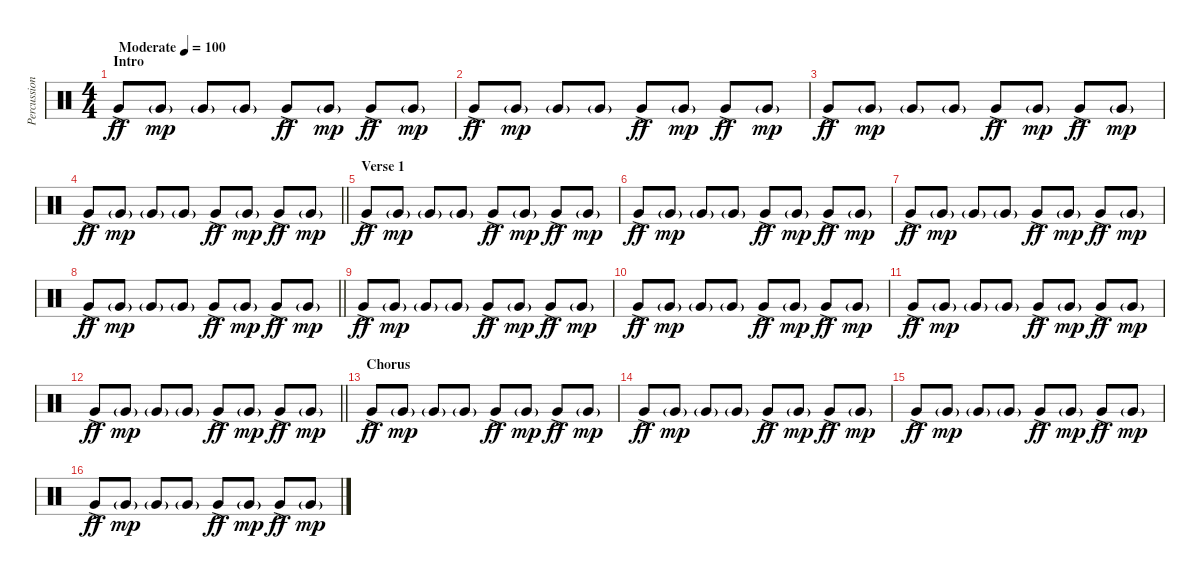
\track ("Percussion" "Percussion") {instrument percussion}
\staff {score}
\articulation defaults
\ts (4 4)
\section ("" "Intro")
\tempo (100 "Moderate")
\clef neutral
\ks c "Very Low Tom (hit)"{ac}.8{dy ff} "Very Low Tom (hit)"{g}.8{dy mp} "Very Low Tom (hit)"{g}.8 "Very Low Tom (hit)"{g}.8 "Very Low Tom (hit)"{ac}.8{dy ff} "Very Low Tom (hit)"{g}.8{dy mp} "Very Low Tom (hit)"{ac}.8{dy ff} "Very Low Tom (hit)"{g}.8{dy mp}
|
"Very Low Tom (hit)"{ac}.8{dy ff} "Very Low Tom (hit)"{g}.8{dy mp} "Very Low Tom (hit)"{g}.8 "Very Low Tom (hit)"{g}.8 "Very Low Tom (hit)"{ac}.8{dy ff} "Very Low Tom (hit)"{g}.8{dy mp} "Very Low Tom (hit)"{ac}.8{dy ff} "Very Low Tom (hit)"{g}.8{dy mp} |
"Very Low Tom (hit)"{ac}.8{dy ff} "Very Low Tom (hit)"{g}.8{dy mp} "Very Low Tom (hit)"{g}.8 "Very Low Tom (hit)"{g}.8 "Very Low Tom (hit)"{ac}.8{dy ff} "Very Low Tom (hit)"{g}.8{dy mp} "Very Low Tom (hit)"{ac}.8{dy ff} "Very Low Tom (hit)"{g}.8{dy mp} |
\barLineRight lightlight "Very Low Tom (hit)"{ac}.8{dy ff} "Very Low Tom (hit)"{g}.8{dy mp} "Very Low Tom (hit)"{g}.8 "Very Low Tom (hit)"{g}.8 "Very Low Tom (hit)"{ac}.8{dy ff} "Very Low Tom (hit)"{g}.8{dy mp} "Very Low Tom (hit)"{ac}.8{dy ff} "Very Low Tom (hit)"{g}.8{dy mp}
|
\section ("" "Verse 1")
"Very Low Tom (hit)"{ac}.8{dy ff} "Very Low Tom (hit)"{g}.8{dy mp} "Very Low Tom (hit)"{g}.8 "Very Low Tom (hit)"{g}.8 "Very Low Tom (hit)"{ac}.8{dy ff} "Very Low Tom (hit)"{g}.8{dy mp} "Very Low Tom (hit)"{ac}.8{dy ff} "Very Low Tom (hit)"{g}.8{dy mp} |
"Very Low Tom (hit)"{ac}.8{dy ff} "Very Low Tom (hit)"{g}.8{dy mp} "Very Low Tom (hit)"{g}.8 "Very Low Tom (hit)"{g}.8 "Very Low Tom (hit)"{ac}.8{dy ff} "Very Low Tom (hit)"{g}.8{dy mp} "Very Low Tom (hit)"{ac}.8{dy ff} "Very Low Tom (hit)"{g}.8{dy mp} |
"Very Low Tom (hit)"{ac}.8{dy ff} "Very Low Tom (hit)"{g}.8{dy mp} "Very Low Tom (hit)"{g}.8 "Very Low Tom (hit)"{g}.8 "Very Low Tom (hit)"{ac}.8{dy ff} "Very Low Tom (hit)"{g}.8{dy mp} "Very Low Tom (hit)"{ac}.8{dy ff} "Very Low Tom (hit)"{g}.8{dy mp} |
\barLineRight lightlight "Very Low Tom (hit)"{ac}.8{dy ff} "Very Low Tom (hit)"{g}.8{dy mp} "Very Low Tom (hit)"{g}.8 "Very Low Tom (hit)"{g}.8 "Very Low Tom (hit)"{ac}.8{dy ff} "Very Low Tom (hit)"{g}.8{dy mp} "Very Low Tom (hit)"{ac}.8{dy ff} "Very Low Tom (hit)"{g}.8{dy mp}
|
"Very Low Tom (hit)"{ac}.8{dy ff} "Very Low Tom (hit)"{g}.8{dy mp} "Very Low Tom (hit)"{g}.8 "Very Low Tom (hit)"{g}.8 "Very Low Tom (hit)"{ac}.8{dy ff} "Very Low Tom (hit)"{g}.8{dy mp} "Very Low Tom (hit)"{ac}.8{dy ff} "Very Low Tom (hit)"{g}.8{dy mp} |
"Very Low Tom (hit)"{ac}.8{dy ff} "Very Low Tom (hit)"{g}.8{dy mp} "Very Low Tom (hit)"{g}.8 "Very Low Tom (hit)"{g}.8 "Very Low Tom (hit)"{ac}.8{dy ff} "Very Low Tom (hit)"{g}.8{dy mp} "Very Low Tom (hit)"{ac}.8{dy ff} "Very Low Tom (hit)"{g}.8{dy mp} |
"Very Low Tom (hit)"{ac}.8{dy ff} "Very Low Tom (hit)"{g}.8{dy mp} "Very Low Tom (hit)"{g}.8 "Very Low Tom (hit)"{g}.8 "Very Low Tom (hit)"{ac}.8{dy ff} "Very Low Tom (hit)"{g}.8{dy mp} "Very Low Tom (hit)"{ac}.8{dy ff} "Very Low Tom (hit)"{g}.8{dy mp} |
\barLineRight lightlight "Very Low Tom (hit)"{ac}.8{dy ff} "Very Low Tom (hit)"{g}.8{dy mp} "Very Low Tom (hit)"{g}.8 "Very Low Tom (hit)"{g}.8 "Very Low Tom (hit)"{ac}.8{dy ff} "Very Low Tom (hit)"{g}.8{dy mp} "Very Low Tom (hit)"{ac}.8{dy ff} "Very Low Tom (hit)"{g}.8{dy mp}
|
\section ("" "Chorus")
"Very Low Tom (hit)"{ac}.8{dy ff} "Very Low Tom (hit)"{g}.8{dy mp} "Very Low Tom (hit)"{g}.8 "Very Low Tom (hit)"{g}.8 "Very Low Tom (hit)"{ac}.8{dy ff} "Very Low Tom (hit)"{g}.8{dy mp} "Very Low Tom (hit)"{ac}.8{dy ff} "Very Low Tom (hit)"{g}.8{dy mp} |
"Very Low Tom (hit)"{ac}.8{dy ff} "Very Low Tom (hit)"{g}.8{dy mp} "Very Low Tom (hit)"{g}.8 "Very Low Tom (hit)"{g}.8 "Very Low Tom (hit)"{ac}.8{dy ff} "Very Low Tom (hit)"{g}.8{dy mp} "Very Low Tom (hit)"{ac}.8{dy ff} "Very Low Tom (hit)"{g}.8{dy mp} |
"Very Low Tom (hit)"{ac}.8{dy ff} "Very Low Tom (hit)"{g}.8{dy mp} "Very Low Tom (hit)"{g}.8 "Very Low Tom (hit)"{g}.8 "Very Low Tom (hit)"{ac}.8{dy ff} "Very Low Tom (hit)"{g}.8{dy mp} "Very Low Tom (hit)"{ac}.8{dy ff} "Very Low Tom (hit)"{g}.8{dy mp} |
"Very Low Tom (hit)"{ac}.8{dy ff} "Very Low Tom (hit)"{g}.8{dy mp} "Very Low Tom (hit)"{g}.8 "Very Low Tom (hit)"{g}.8 "Very Low Tom (hit)"{ac}.8{dy ff} "Very Low Tom (hit)"{g}.8{dy mp} "Very Low Tom (hit)"{ac}.8{dy ff} "Very Low Tom (hit)"{g}.8{dy mp}
